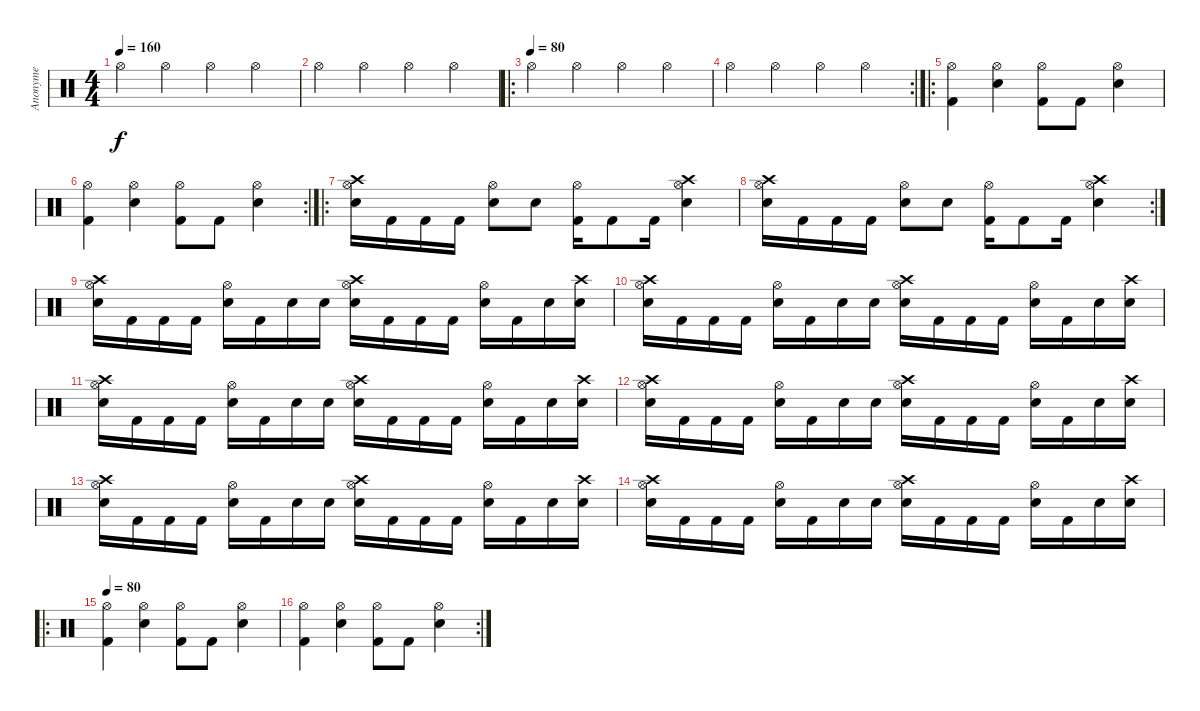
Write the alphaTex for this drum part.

\track ("Anonyme" "Anonyme") {instrument percussion}
\staff {score}
\articulation defaults
\ts (4 4)
\tempo 160
\tempo 80
\tempo 160
\clef neutral
\ks c "Hi-Hat (open)".4{dy f} "Hi-Hat (open)".4 "Hi-Hat (open)".4 "Hi-Hat (open)".4
|
"Hi-Hat (open)".4 "Hi-Hat (open)".4 "Hi-Hat (open)".4 "Hi-Hat (open)".4 |
\ro
\tempo (80)
"Hi-Hat (open)".4 "Hi-Hat (open)".4 "Hi-Hat (open)".4 "Hi-Hat (open)".4 |
\rc 2 "Hi-Hat (open)".4 "Hi-Hat (open)".4 "Hi-Hat (open)".4 "Hi-Hat (open)".4
|
\ro
("Hi-Hat (open)" "Kick (hit) 2").4 ("Hi-Hat (open)" "Snare (hit) 2").4 ("Hi-Hat (open)" "Kick (hit) 2").8 "Kick (hit) 2".8 ("Hi-Hat (open)" "Snare (hit) 2").4 |
\rc 2
("Hi-Hat (open)" "Kick (hit) 2").4 ("Hi-Hat (open)" "Snare (hit) 2").4 ("Hi-Hat (open)" "Kick (hit) 2").8 "Kick (hit) 2".8 ("Hi-Hat (open)" "Snare (hit) 2").4 |
\ro
("Crash high (hit)" "Hi-Hat (open)" "Electric Snare (hit)").16 "Kick (hit) 2".16 "Kick (hit) 2".16 "Kick (hit) 2".16 ("Hi-Hat (open)" "Electric Snare (hit)").8 "Electric Snare (hit)".8 ("Hi-Hat (open)" "Kick (hit) 2").16 "Kick (hit) 2".8 "Kick (hit) 2".16 ("Crash high (hit)" "Hi-Hat (open)" "Electric Snare (hit)").4 |
\rc 2
("Crash high (hit)" "Hi-Hat (open)" "Electric Snare (hit)").16 "Kick (hit) 2".16 "Kick (hit) 2".16 "Kick (hit) 2".16 ("Hi-Hat (open)" "Electric Snare (hit)").8 "Electric Snare (hit)".8 ("Hi-Hat (open)" "Kick (hit) 2").16 "Kick (hit) 2".8 "Kick (hit) 2".16 ("Crash high (hit)" "Hi-Hat (open)" "Electric Snare (hit)").4 |
("Crash high (hit)" "Hi-Hat (open)" "Electric Snare (hit)").16 "Kick (hit) 2".16 "Kick (hit) 2".16 "Kick (hit) 2".16 ("Hi-Hat (open)" "Electric Snare (hit)").16 "Kick (hit) 2".16 "Electric Snare (hit)".16 "Electric Snare (hit)".16 ("Crash high (hit)" "Hi-Hat (open)" "Electric Snare (hit)").16 "Kick (hit) 2".16 "Kick (hit) 2".16 "Kick (hit) 2".16 ("Hi-Hat (open)" "Electric Snare (hit)").16 "Kick (hit) 2".16 "Electric Snare (hit)".16 ("Crash high (hit)" "Electric Snare (hit)").16 |
("Crash high (hit)" "Hi-Hat (open)" "Electric Snare (hit)").16 "Kick (hit) 2".16 "Kick (hit) 2".16 "Kick (hit) 2".16 ("Hi-Hat (open)" "Electric Snare (hit)").16 "Kick (hit) 2".16 "Electric Snare (hit)".16 "Electric Snare (hit)".16 ("Crash high (hit)" "Hi-Hat (open)" "Electric Snare (hit)").16 "Kick (hit) 2".16 "Kick (hit) 2".16 "Kick (hit) 2".16 ("Hi-Hat (open)" "Electric Snare (hit)").16 "Kick (hit) 2".16 "Electric Snare (hit)".16 ("Crash high (hit)" "Electric Snare (hit)").16 |
("Crash high (hit)" "Hi-Hat (open)" "Electric Snare (hit)").16 "Kick (hit) 2".16 "Kick (hit) 2".16 "Kick (hit) 2".16 ("Hi-Hat (open)" "Electric Snare (hit)").16 "Kick (hit) 2".16 "Electric Snare (hit)".16 "Electric Snare (hit)".16 ("Crash high (hit)" "Hi-Hat (open)" "Electric Snare (hit)").16 "Kick (hit) 2".16 "Kick (hit) 2".16 "Kick (hit) 2".16 ("Hi-Hat (open)" "Electric Snare (hit)").16 "Kick (hit) 2".16 "Electric Snare (hit)".16 ("Crash high (hit)" "Electric Snare (hit)").16 |
("Crash high (hit)" "Hi-Hat (open)" "Electric Snare (hit)").16 "Kick (hit) 2".16 "Kick (hit) 2".16 "Kick (hit) 2".16 ("Hi-Hat (open)" "Electric Snare (hit)").16 "Kick (hit) 2".16 "Electric Snare (hit)".16 "Electric Snare (hit)".16 ("Crash high (hit)" "Hi-Hat (open)" "Electric Snare (hit)").16 "Kick (hit) 2".16 "Kick (hit) 2".16 "Kick (hit) 2".16 ("Hi-Hat (open)" "Electric Snare (hit)").16 "Kick (hit) 2".16 "Electric Snare (hit)".16 ("Crash high (hit)" "Electric Snare (hit)").16 |
("Crash high (hit)" "Hi-Hat (open)" "Electric Snare (hit)").16 "Kick (hit) 2".16 "Kick (hit) 2".16 "Kick (hit) 2".16 ("Hi-Hat (open)" "Electric Snare (hit)").16 "Kick (hit) 2".16 "Electric Snare (hit)".16 "Electric Snare (hit)".16 ("Crash high (hit)" "Hi-Hat (open)" "Electric Snare (hit)").16 "Kick (hit) 2".16 "Kick (hit) 2".16 "Kick (hit) 2".16 ("Hi-Hat (open)" "Electric Snare (hit)").16 "Kick (hit) 2".16 "Electric Snare (hit)".16 ("Crash high (hit)" "Electric Snare (hit)").16 |
("Crash high (hit)" "Hi-Hat (open)" "Electric Snare (hit)").16 "Kick (hit) 2".16 "Kick (hit) 2".16 "Kick (hit) 2".16 ("Hi-Hat (open)" "Electric Snare (hit)").16 "Kick (hit) 2".16 "Electric Snare (hit)".16 "Electric Snare (hit)".16 ("Crash high (hit)" "Hi-Hat (open)" "Electric Snare (hit)").16 "Kick (hit) 2".16 "Kick (hit) 2".16 "Kick (hit) 2".16 ("Hi-Hat (open)" "Electric Snare (hit)").16 "Kick (hit) 2".16 "Electric Snare (hit)".16 ("Crash high (hit)" "Electric Snare (hit)").16 |
\ro
\tempo 80
("Hi-Hat (open)" "Kick (hit) 2").4 ("Hi-Hat (open)" "Snare (hit) 2").4 ("Hi-Hat (open)" "Kick (hit) 2").8 "Kick (hit) 2".8 ("Hi-Hat (open)" "Snare (hit) 2").4 |
\rc 2
("Hi-Hat (open)" "Kick (hit) 2").4 ("Hi-Hat (open)" "Snare (hit) 2").4 ("Hi-Hat (open)" "Kick (hit) 2").8 "Kick (hit) 2".8 ("Hi-Hat (open)" "Snare (hit) 2").4
